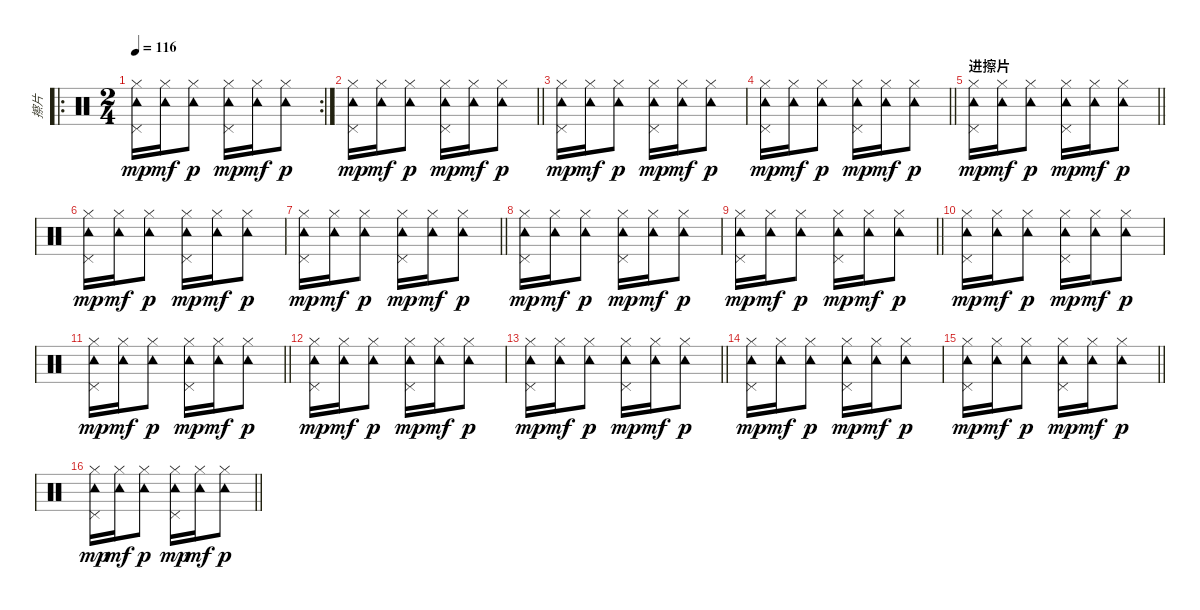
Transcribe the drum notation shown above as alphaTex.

\track ("擦片" "擦片") {instrument percussion}
\staff {score}
\articulation defaults
\ro
\rc 2
\ts (2 4)
\tempo 116
\clef neutral
\ks c
("Hi-Hat (closed)" "Tambourine (hit)" "Pedal Hi-Hat (hit)").16{dy mp} ("Hi-Hat (closed)" "Tambourine (hit)").16{dy mf} ("Hi-Hat (closed)" "Tambourine (hit)").8{dy p} ("Hi-Hat (closed)" "Tambourine (hit)" "Pedal Hi-Hat (hit)").16{dy mp} ("Hi-Hat (closed)" "Tambourine (hit)").16{dy mf} ("Hi-Hat (closed)" "Tambourine (hit)").8{dy p} |
\barLineRight lightlight
("Hi-Hat (closed)" "Tambourine (hit)" "Pedal Hi-Hat (hit)").16{dy mp} ("Hi-Hat (closed)" "Tambourine (hit)").16{dy mf} ("Hi-Hat (closed)" "Tambourine (hit)").8{dy p} ("Hi-Hat (closed)" "Tambourine (hit)" "Pedal Hi-Hat (hit)").16{dy mp} ("Hi-Hat (closed)" "Tambourine (hit)").16{dy mf} ("Hi-Hat (closed)" "Tambourine (hit)").8{dy p} |
("Hi-Hat (closed)" "Tambourine (hit)" "Pedal Hi-Hat (hit)").16{dy mp} ("Hi-Hat (closed)" "Tambourine (hit)").16{dy mf} ("Hi-Hat (closed)" "Tambourine (hit)").8{dy p} ("Hi-Hat (closed)" "Tambourine (hit)" "Pedal Hi-Hat (hit)").16{dy mp} ("Hi-Hat (closed)" "Tambourine (hit)").16{dy mf} ("Hi-Hat (closed)" "Tambourine (hit)").8{dy p} |
\barLineRight lightlight
("Hi-Hat (closed)" "Tambourine (hit)" "Pedal Hi-Hat (hit)").16{dy mp} ("Hi-Hat (closed)" "Tambourine (hit)").16{dy mf} ("Hi-Hat (closed)" "Tambourine (hit)").8{dy p} ("Hi-Hat (closed)" "Tambourine (hit)" "Pedal Hi-Hat (hit)").16{dy mp} ("Hi-Hat (closed)" "Tambourine (hit)").16{dy mf} ("Hi-Hat (closed)" "Tambourine (hit)").8{dy p} |
\section ("" "进擦片")
\barLineRight lightlight
("Hi-Hat (closed)" "Tambourine (hit)" "Pedal Hi-Hat (hit)").16{dy mp} ("Hi-Hat (closed)" "Tambourine (hit)").16{dy mf} ("Hi-Hat (closed)" "Tambourine (hit)").8{dy p} ("Hi-Hat (closed)" "Tambourine (hit)" "Pedal Hi-Hat (hit)").16{dy mp} ("Hi-Hat (closed)" "Tambourine (hit)").16{dy mf} ("Hi-Hat (closed)" "Tambourine (hit)").8{dy p} |
\section ("" "")
("Hi-Hat (closed)" "Tambourine (hit)" "Pedal Hi-Hat (hit)").16{dy mp} ("Hi-Hat (closed)" "Tambourine (hit)").16{dy mf} ("Hi-Hat (closed)" "Tambourine (hit)").8{dy p} ("Hi-Hat (closed)" "Tambourine (hit)" "Pedal Hi-Hat (hit)").16{dy mp} ("Hi-Hat (closed)" "Tambourine (hit)").16{dy mf} ("Hi-Hat (closed)" "Tambourine (hit)").8{dy p} |
\barLineRight lightlight
("Hi-Hat (closed)" "Tambourine (hit)" "Pedal Hi-Hat (hit)").16{dy mp} ("Hi-Hat (closed)" "Tambourine (hit)").16{dy mf} ("Hi-Hat (closed)" "Tambourine (hit)").8{dy p} ("Hi-Hat (closed)" "Tambourine (hit)" "Pedal Hi-Hat (hit)").16{dy mp} ("Hi-Hat (closed)" "Tambourine (hit)").16{dy mf} ("Hi-Hat (closed)" "Tambourine (hit)").8{dy p} |
("Hi-Hat (closed)" "Tambourine (hit)" "Pedal Hi-Hat (hit)").16{dy mp} ("Hi-Hat (closed)" "Tambourine (hit)").16{dy mf} ("Hi-Hat (closed)" "Tambourine (hit)").8{dy p} ("Hi-Hat (closed)" "Tambourine (hit)" "Pedal Hi-Hat (hit)").16{dy mp} ("Hi-Hat (closed)" "Tambourine (hit)").16{dy mf} ("Hi-Hat (closed)" "Tambourine (hit)").8{dy p} |
\barLineRight lightlight
("Hi-Hat (closed)" "Tambourine (hit)" "Pedal Hi-Hat (hit)").16{dy mp} ("Hi-Hat (closed)" "Tambourine (hit)").16{dy mf} ("Hi-Hat (closed)" "Tambourine (hit)").8{dy p} ("Hi-Hat (closed)" "Tambourine (hit)" "Pedal Hi-Hat (hit)").16{dy mp} ("Hi-Hat (closed)" "Tambourine (hit)").16{dy mf} ("Hi-Hat (closed)" "Tambourine (hit)").8{dy p} |
("Hi-Hat (closed)" "Tambourine (hit)" "Pedal Hi-Hat (hit)").16{dy mp} ("Hi-Hat (closed)" "Tambourine (hit)").16{dy mf} ("Hi-Hat (closed)" "Tambourine (hit)").8{dy p} ("Hi-Hat (closed)" "Tambourine (hit)" "Pedal Hi-Hat (hit)").16{dy mp} ("Hi-Hat (closed)" "Tambourine (hit)").16{dy mf} ("Hi-Hat (closed)" "Tambourine (hit)").8{dy p} |
\barLineRight lightlight
("Hi-Hat (closed)" "Tambourine (hit)" "Pedal Hi-Hat (hit)").16{dy mp} ("Hi-Hat (closed)" "Tambourine (hit)").16{dy mf} ("Hi-Hat (closed)" "Tambourine (hit)").8{dy p} ("Hi-Hat (closed)" "Tambourine (hit)" "Pedal Hi-Hat (hit)").16{dy mp} ("Hi-Hat (closed)" "Tambourine (hit)").16{dy mf} ("Hi-Hat (closed)" "Tambourine (hit)").8{dy p} |
("Hi-Hat (closed)" "Tambourine (hit)" "Pedal Hi-Hat (hit)").16{dy mp} ("Hi-Hat (closed)" "Tambourine (hit)").16{dy mf} ("Hi-Hat (closed)" "Tambourine (hit)").8{dy p} ("Hi-Hat (closed)" "Tambourine (hit)" "Pedal Hi-Hat (hit)").16{dy mp} ("Hi-Hat (closed)" "Tambourine (hit)").16{dy mf} ("Hi-Hat (closed)" "Tambourine (hit)").8{dy p} |
\barLineRight lightlight
("Hi-Hat (closed)" "Tambourine (hit)" "Pedal Hi-Hat (hit)").16{dy mp} ("Hi-Hat (closed)" "Tambourine (hit)").16{dy mf} ("Hi-Hat (closed)" "Tambourine (hit)").8{dy p} ("Hi-Hat (closed)" "Tambourine (hit)" "Pedal Hi-Hat (hit)").16{dy mp} ("Hi-Hat (closed)" "Tambourine (hit)").16{dy mf} ("Hi-Hat (closed)" "Tambourine (hit)").8{dy p} |
("Hi-Hat (closed)" "Tambourine (hit)" "Pedal Hi-Hat (hit)").16{dy mp} ("Hi-Hat (closed)" "Tambourine (hit)").16{dy mf} ("Hi-Hat (closed)" "Tambourine (hit)").8{dy p} ("Hi-Hat (closed)" "Tambourine (hit)" "Pedal Hi-Hat (hit)").16{dy mp} ("Hi-Hat (closed)" "Tambourine (hit)").16{dy mf} ("Hi-Hat (closed)" "Tambourine (hit)").8{dy p} |
\barLineRight lightlight
("Hi-Hat (closed)" "Tambourine (hit)" "Pedal Hi-Hat (hit)").16{dy mp} ("Hi-Hat (closed)" "Tambourine (hit)").16{dy mf} ("Hi-Hat (closed)" "Tambourine (hit)").8{dy p} ("Hi-Hat (closed)" "Tambourine (hit)" "Pedal Hi-Hat (hit)").16{dy mp} ("Hi-Hat (closed)" "Tambourine (hit)").16{dy mf} ("Hi-Hat (closed)" "Tambourine (hit)").8{dy p} |
\barLineRight lightlight
("Hi-Hat (closed)" "Tambourine (hit)" "Pedal Hi-Hat (hit)").16{dy mp} ("Hi-Hat (closed)" "Tambourine (hit)").16{dy mf} ("Hi-Hat (closed)" "Tambourine (hit)").8{dy p} ("Hi-Hat (closed)" "Tambourine (hit)" "Pedal Hi-Hat (hit)").16{dy mp} ("Hi-Hat (closed)" "Tambourine (hit)").16{dy mf} ("Hi-Hat (closed)" "Tambourine (hit)").8{dy p}
